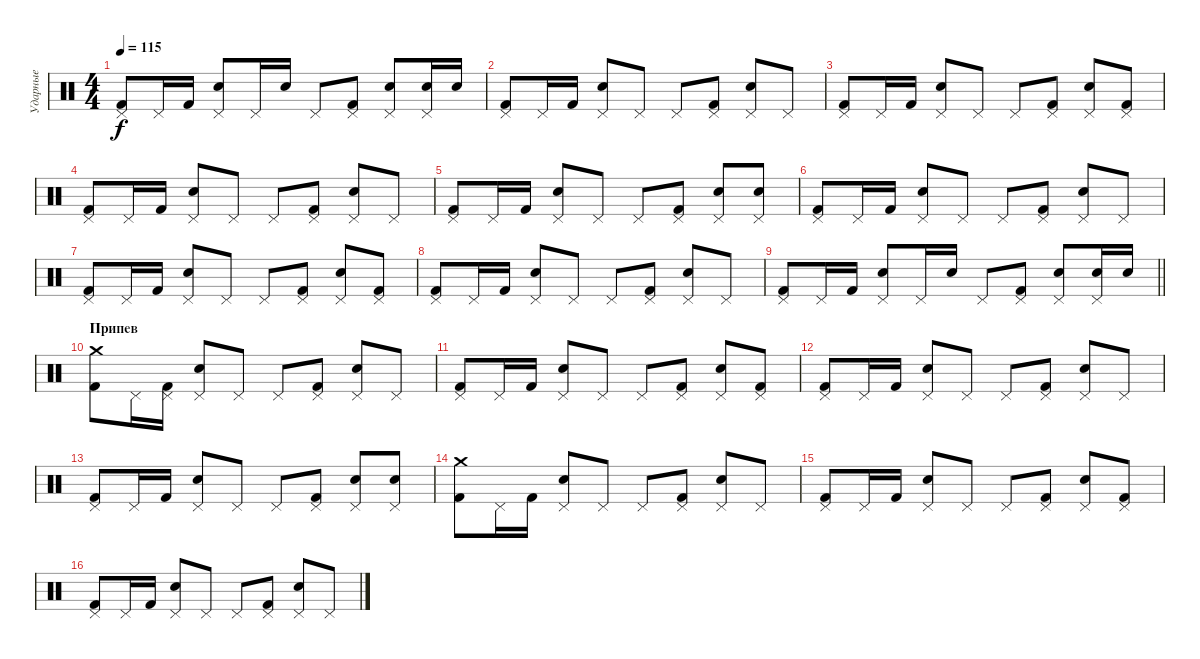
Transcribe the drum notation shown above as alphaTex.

\track ("Ударные" "Ударные") {instrument percussion}
\staff {score}
\articulation defaults
\ts (4 4)
\tempo 115
\clef neutral
\ks c
("Pedal Hi-Hat (hit)" "Kick (hit) 2").8{dy f} "Pedal Hi-Hat (hit)".16 "Kick (hit) 2".16 ("Pedal Hi-Hat (hit)" "Electric Snare (hit)").8 "Pedal Hi-Hat (hit)".16 "Electric Snare (hit)".16 "Pedal Hi-Hat (hit)".8 ("Pedal Hi-Hat (hit)" "Kick (hit) 2").8 ("Pedal Hi-Hat (hit)" "Electric Snare (hit)").8 ("Pedal Hi-Hat (hit)" "Electric Snare (hit)").16 "Electric Snare (hit)".16 |
("Pedal Hi-Hat (hit)" "Kick (hit) 2").8 "Pedal Hi-Hat (hit)".16 "Kick (hit) 2".16 ("Pedal Hi-Hat (hit)" "Electric Snare (hit)").8 "Pedal Hi-Hat (hit)".8 "Pedal Hi-Hat (hit)".8 ("Pedal Hi-Hat (hit)" "Kick (hit) 2").8 ("Pedal Hi-Hat (hit)" "Electric Snare (hit)").8 "Pedal Hi-Hat (hit)".8 |
("Pedal Hi-Hat (hit)" "Kick (hit) 2").8 "Pedal Hi-Hat (hit)".16 "Kick (hit) 2".16 ("Pedal Hi-Hat (hit)" "Electric Snare (hit)").8 "Pedal Hi-Hat (hit)".8 "Pedal Hi-Hat (hit)".8 ("Pedal Hi-Hat (hit)" "Kick (hit) 2").8 ("Pedal Hi-Hat (hit)" "Electric Snare (hit)").8 ("Pedal Hi-Hat (hit)" "Kick (hit) 2").8 |
("Pedal Hi-Hat (hit)" "Kick (hit) 2").8 "Pedal Hi-Hat (hit)".16 "Kick (hit) 2".16 ("Pedal Hi-Hat (hit)" "Electric Snare (hit)").8 "Pedal Hi-Hat (hit)".8 "Pedal Hi-Hat (hit)".8 ("Pedal Hi-Hat (hit)" "Kick (hit) 2").8 ("Pedal Hi-Hat (hit)" "Electric Snare (hit)").8 "Pedal Hi-Hat (hit)".8 |
("Pedal Hi-Hat (hit)" "Kick (hit) 2").8 "Pedal Hi-Hat (hit)".16 "Kick (hit) 2".16 ("Pedal Hi-Hat (hit)" "Electric Snare (hit)").8 "Pedal Hi-Hat (hit)".8 "Pedal Hi-Hat (hit)".8 ("Pedal Hi-Hat (hit)" "Kick (hit) 2").8 ("Pedal Hi-Hat (hit)" "Electric Snare (hit)").8 ("Pedal Hi-Hat (hit)" "Electric Snare (hit)").8 |
("Pedal Hi-Hat (hit)" "Kick (hit) 2").8 "Pedal Hi-Hat (hit)".16 "Kick (hit) 2".16 ("Pedal Hi-Hat (hit)" "Electric Snare (hit)").8 "Pedal Hi-Hat (hit)".8 "Pedal Hi-Hat (hit)".8 ("Pedal Hi-Hat (hit)" "Kick (hit) 2").8 ("Pedal Hi-Hat (hit)" "Electric Snare (hit)").8 "Pedal Hi-Hat (hit)".8 |
("Pedal Hi-Hat (hit)" "Kick (hit) 2").8 "Pedal Hi-Hat (hit)".16 "Kick (hit) 2".16 ("Pedal Hi-Hat (hit)" "Electric Snare (hit)").8 "Pedal Hi-Hat (hit)".8 "Pedal Hi-Hat (hit)".8 ("Pedal Hi-Hat (hit)" "Kick (hit) 2").8 ("Pedal Hi-Hat (hit)" "Electric Snare (hit)").8 ("Pedal Hi-Hat (hit)" "Kick (hit) 2").8 |
("Pedal Hi-Hat (hit)" "Kick (hit) 2").8 "Pedal Hi-Hat (hit)".16 "Kick (hit) 2".16 ("Pedal Hi-Hat (hit)" "Electric Snare (hit)").8 "Pedal Hi-Hat (hit)".8 "Pedal Hi-Hat (hit)".8 ("Pedal Hi-Hat (hit)" "Kick (hit) 2").8 ("Pedal Hi-Hat (hit)" "Electric Snare (hit)").8 "Pedal Hi-Hat (hit)".8 |
\barLineRight lightlight
("Pedal Hi-Hat (hit)" "Kick (hit) 2").8 "Pedal Hi-Hat (hit)".16 "Kick (hit) 2".16 ("Pedal Hi-Hat (hit)" "Electric Snare (hit)").8 "Pedal Hi-Hat (hit)".16 "Electric Snare (hit)".16 "Pedal Hi-Hat (hit)".8 ("Pedal Hi-Hat (hit)" "Kick (hit) 2").8 ("Pedal Hi-Hat (hit)" "Electric Snare (hit)").8 ("Pedal Hi-Hat (hit)" "Electric Snare (hit)").16 "Electric Snare (hit)".16 |
\section ("" "Припев")
("Crash medium (hit)" "Kick (hit) 2").8 "Pedal Hi-Hat (hit)".16 ("Pedal Hi-Hat (hit)" "Kick (hit) 2").16 ("Pedal Hi-Hat (hit)" "Electric Snare (hit)").8 "Pedal Hi-Hat (hit)".8 "Pedal Hi-Hat (hit)".8 ("Pedal Hi-Hat (hit)" "Kick (hit) 2").8 ("Pedal Hi-Hat (hit)" "Electric Snare (hit)").8 "Pedal Hi-Hat (hit)".8 |
("Pedal Hi-Hat (hit)" "Kick (hit) 2").8 "Pedal Hi-Hat (hit)".16 "Kick (hit) 2".16 ("Pedal Hi-Hat (hit)" "Electric Snare (hit)").8 "Pedal Hi-Hat (hit)".8 "Pedal Hi-Hat (hit)".8 ("Pedal Hi-Hat (hit)" "Kick (hit) 2").8 ("Pedal Hi-Hat (hit)" "Electric Snare (hit)").8 ("Pedal Hi-Hat (hit)" "Kick (hit) 2").8 |
("Pedal Hi-Hat (hit)" "Kick (hit) 2").8 "Pedal Hi-Hat (hit)".16 "Kick (hit) 2".16 ("Pedal Hi-Hat (hit)" "Electric Snare (hit)").8 "Pedal Hi-Hat (hit)".8 "Pedal Hi-Hat (hit)".8 ("Pedal Hi-Hat (hit)" "Kick (hit) 2").8 ("Pedal Hi-Hat (hit)" "Electric Snare (hit)").8 "Pedal Hi-Hat (hit)".8 |
("Pedal Hi-Hat (hit)" "Kick (hit) 2").8 "Pedal Hi-Hat (hit)".16 "Kick (hit) 2".16 ("Pedal Hi-Hat (hit)" "Electric Snare (hit)").8 "Pedal Hi-Hat (hit)".8 "Pedal Hi-Hat (hit)".8 ("Pedal Hi-Hat (hit)" "Kick (hit) 2").8 ("Pedal Hi-Hat (hit)" "Electric Snare (hit)").8 ("Pedal Hi-Hat (hit)" "Electric Snare (hit)").8 |
("Crash medium (hit)" "Kick (hit) 2").8 "Pedal Hi-Hat (hit)".16 "Kick (hit) 2".16 ("Pedal Hi-Hat (hit)" "Electric Snare (hit)").8 "Pedal Hi-Hat (hit)".8 "Pedal Hi-Hat (hit)".8 ("Pedal Hi-Hat (hit)" "Kick (hit) 2").8 ("Pedal Hi-Hat (hit)" "Electric Snare (hit)").8 "Pedal Hi-Hat (hit)".8 |
("Pedal Hi-Hat (hit)" "Kick (hit) 2").8 "Pedal Hi-Hat (hit)".16 "Kick (hit) 2".16 ("Pedal Hi-Hat (hit)" "Electric Snare (hit)").8 "Pedal Hi-Hat (hit)".8 "Pedal Hi-Hat (hit)".8 ("Pedal Hi-Hat (hit)" "Kick (hit) 2").8 ("Pedal Hi-Hat (hit)" "Electric Snare (hit)").8 ("Pedal Hi-Hat (hit)" "Kick (hit) 2").8 |
("Pedal Hi-Hat (hit)" "Kick (hit) 2").8 "Pedal Hi-Hat (hit)".16 "Kick (hit) 2".16 ("Pedal Hi-Hat (hit)" "Electric Snare (hit)").8 "Pedal Hi-Hat (hit)".8 "Pedal Hi-Hat (hit)".8 ("Pedal Hi-Hat (hit)" "Kick (hit) 2").8 ("Pedal Hi-Hat (hit)" "Electric Snare (hit)").8 "Pedal Hi-Hat (hit)".8
